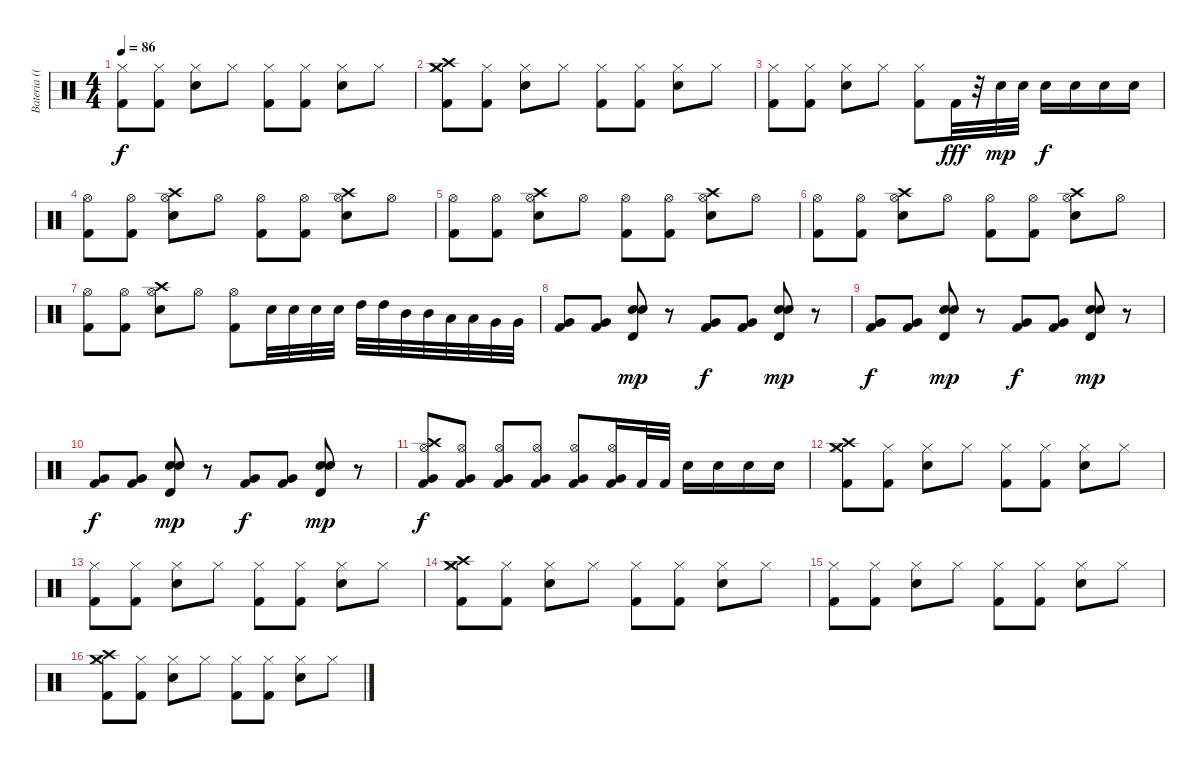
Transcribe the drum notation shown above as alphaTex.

\track ("Bateria ((Matt))" "Bateria ((") {instrument percussion}
\staff {score}
\articulation defaults
\ts (4 4)
\tempo 86
\clef neutral
\ks c
("Hi-Hat (closed)" "Kick (hit) 2").8{dy f} ("Hi-Hat (closed)" "Kick (hit) 2").8 ("Hi-Hat (closed)" "Electric Snare (hit)").8 "Hi-Hat (closed)".8 ("Hi-Hat (closed)" "Kick (hit) 2").8 ("Hi-Hat (closed)" "Kick (hit) 2").8 ("Hi-Hat (closed)" "Electric Snare (hit)").8 "Hi-Hat (closed)".8 |
("Hi-Hat (closed)" "Crash high (hit)" "Crash medium (hit)" "Kick (hit) 2").8 ("Hi-Hat (closed)" "Kick (hit) 2").8 ("Hi-Hat (closed)" "Electric Snare (hit)").8 "Hi-Hat (closed)".8 ("Hi-Hat (closed)" "Kick (hit) 2").8 ("Hi-Hat (closed)" "Kick (hit) 2").8 ("Hi-Hat (closed)" "Electric Snare (hit)").8 "Hi-Hat (closed)".8 |
("Hi-Hat (closed)" "Kick (hit) 2").8 ("Hi-Hat (closed)" "Kick (hit) 2").8 ("Hi-Hat (closed)" "Electric Snare (hit)").8 "Hi-Hat (closed)".8 ("Hi-Hat (closed)" "Kick (hit) 2").8 "Kick (hit) 2".32{dy fff} r.32 "Electric Snare (hit)".32{dy mp} "Electric Snare (hit)".32 "Electric Snare (hit)".16{dy f} "Electric Snare (hit)".16 "Electric Snare (hit)".16 "Electric Snare (hit)".16 |
("Hi-Hat (open)" "Kick (hit) 2").8 ("Hi-Hat (open)" "Kick (hit) 2").8 ("Hi-Hat (open)" "Crash high (hit)" "Electric Snare (hit)").8 "Hi-Hat (open)".8 ("Hi-Hat (open)" "Kick (hit) 2").8 ("Hi-Hat (open)" "Kick (hit) 2").8 ("Hi-Hat (open)" "Crash high (hit)" "Electric Snare (hit)").8 "Hi-Hat (open)".8 |
("Hi-Hat (open)" "Kick (hit) 2").8 ("Hi-Hat (open)" "Kick (hit) 2").8 ("Hi-Hat (open)" "Crash high (hit)" "Electric Snare (hit)").8 "Hi-Hat (open)".8 ("Hi-Hat (open)" "Kick (hit) 2").8 ("Hi-Hat (open)" "Kick (hit) 2").8 ("Hi-Hat (open)" "Crash high (hit)" "Electric Snare (hit)").8 "Hi-Hat (open)".8 |
("Hi-Hat (open)" "Kick (hit) 2").8 ("Hi-Hat (open)" "Kick (hit) 2").8 ("Hi-Hat (open)" "Crash high (hit)" "Electric Snare (hit)").8 "Hi-Hat (open)".8 ("Hi-Hat (open)" "Kick (hit) 2").8 ("Hi-Hat (open)" "Kick (hit) 2").8 ("Hi-Hat (open)" "Crash high (hit)" "Electric Snare (hit)").8 "Hi-Hat (open)".8 |
("Hi-Hat (open)" "Kick (hit) 2").8 ("Hi-Hat (open)" "Kick (hit) 2").8 ("Hi-Hat (open)" "Crash high (hit)" "Electric Snare (hit)").8 "Hi-Hat (open)".8 ("Hi-Hat (open)" "Kick (hit) 2").8 "Electric Snare (hit)".32 "Electric Snare (hit)".32 "Electric Snare (hit)".32 "Electric Snare (hit)".32 "High Tom (hit)".32 "High Tom (hit)".32 "Mid Tom (hit)".32 "Mid Tom (hit)".32 "Low Tom (hit)".32 "Low Tom (hit)".32 "Very Low Tom (hit)".32 "Very Low Tom (hit)".32 |
("Very Low Tom (hit)" "Kick (hit) 2").8 ("Very Low Tom (hit)" "Kick (hit) 2").8 ("Hand Clap (hit)" "Timbale high (hit)" "Electric Snare (hit)").8{dy mp} r.8 ("Very Low Tom (hit)" "Kick (hit) 2").8{dy f} ("Very Low Tom (hit)" "Kick (hit) 2").8 ("Hand Clap (hit)" "Timbale high (hit)" "Electric Snare (hit)").8{dy mp} r.8 |
("Very Low Tom (hit)" "Kick (hit) 2").8{dy f} ("Very Low Tom (hit)" "Kick (hit) 2").8 ("Hand Clap (hit)" "Timbale high (hit)" "Electric Snare (hit)").8{dy mp} r.8 ("Very Low Tom (hit)" "Kick (hit) 2").8{dy f} ("Very Low Tom (hit)" "Kick (hit) 2").8 ("Hand Clap (hit)" "Timbale high (hit)" "Electric Snare (hit)").8{dy mp} r.8 |
("Very Low Tom (hit)" "Kick (hit) 2").8{dy f} ("Very Low Tom (hit)" "Kick (hit) 2").8 ("Hand Clap (hit)" "Timbale high (hit)" "Electric Snare (hit)").8{dy mp} r.8 ("Very Low Tom (hit)" "Kick (hit) 2").8{dy f} ("Very Low Tom (hit)" "Kick (hit) 2").8 ("Hand Clap (hit)" "Timbale high (hit)" "Electric Snare (hit)").8{dy mp} r.8 |
("Hi-Hat (open)" "Crash high (hit)" "Very Low Tom (hit)" "Kick (hit) 2").8{dy f} ("Hi-Hat (open)" "Very Low Tom (hit)" "Kick (hit) 2").8 ("Hi-Hat (open)" "Very Low Tom (hit)" "Kick (hit) 2").8 ("Hi-Hat (open)" "Very Low Tom (hit)" "Kick (hit) 2").8 ("Hi-Hat (open)" "Very Low Tom (hit)" "Kick (hit) 2").8 ("Hi-Hat (open)" "Very Low Tom (hit)" "Kick (hit) 2").16 "Kick (hit) 2".32 "Kick (hit) 2".32 "Electric Snare (hit)".16 "Electric Snare (hit)".16 "Electric Snare (hit)".16 "Electric Snare (hit)".16 |
("Hi-Hat (closed)" "Crash high (hit)" "Crash medium (hit)" "Kick (hit) 2").8 ("Hi-Hat (closed)" "Kick (hit) 2").8 ("Hi-Hat (closed)" "Electric Snare (hit)").8 "Hi-Hat (closed)".8 ("Hi-Hat (closed)" "Kick (hit) 2").8 ("Hi-Hat (closed)" "Kick (hit) 2").8 ("Hi-Hat (closed)" "Electric Snare (hit)").8 "Hi-Hat (closed)".8 |
("Hi-Hat (closed)" "Kick (hit) 2").8 ("Hi-Hat (closed)" "Kick (hit) 2").8 ("Hi-Hat (closed)" "Electric Snare (hit)").8 "Hi-Hat (closed)".8 ("Hi-Hat (closed)" "Kick (hit) 2").8 ("Hi-Hat (closed)" "Kick (hit) 2").8 ("Hi-Hat (closed)" "Electric Snare (hit)").8 "Hi-Hat (closed)".8 |
("Hi-Hat (closed)" "Crash high (hit)" "Crash medium (hit)" "Kick (hit) 2").8 ("Hi-Hat (closed)" "Kick (hit) 2").8 ("Hi-Hat (closed)" "Electric Snare (hit)").8 "Hi-Hat (closed)".8 ("Hi-Hat (closed)" "Kick (hit) 2").8 ("Hi-Hat (closed)" "Kick (hit) 2").8 ("Hi-Hat (closed)" "Electric Snare (hit)").8 "Hi-Hat (closed)".8 |
("Hi-Hat (closed)" "Kick (hit) 2").8 ("Hi-Hat (closed)" "Kick (hit) 2").8 ("Hi-Hat (closed)" "Electric Snare (hit)").8 "Hi-Hat (closed)".8 ("Hi-Hat (closed)" "Kick (hit) 2").8 ("Hi-Hat (closed)" "Kick (hit) 2").8 ("Hi-Hat (closed)" "Electric Snare (hit)").8 "Hi-Hat (closed)".8 |
("Hi-Hat (closed)" "Crash high (hit)" "Crash medium (hit)" "Kick (hit) 2").8 ("Hi-Hat (closed)" "Kick (hit) 2").8 ("Hi-Hat (closed)" "Electric Snare (hit)").8 "Hi-Hat (closed)".8 ("Hi-Hat (closed)" "Kick (hit) 2").8 ("Hi-Hat (closed)" "Kick (hit) 2").8 ("Hi-Hat (closed)" "Electric Snare (hit)").8 "Hi-Hat (closed)".8
